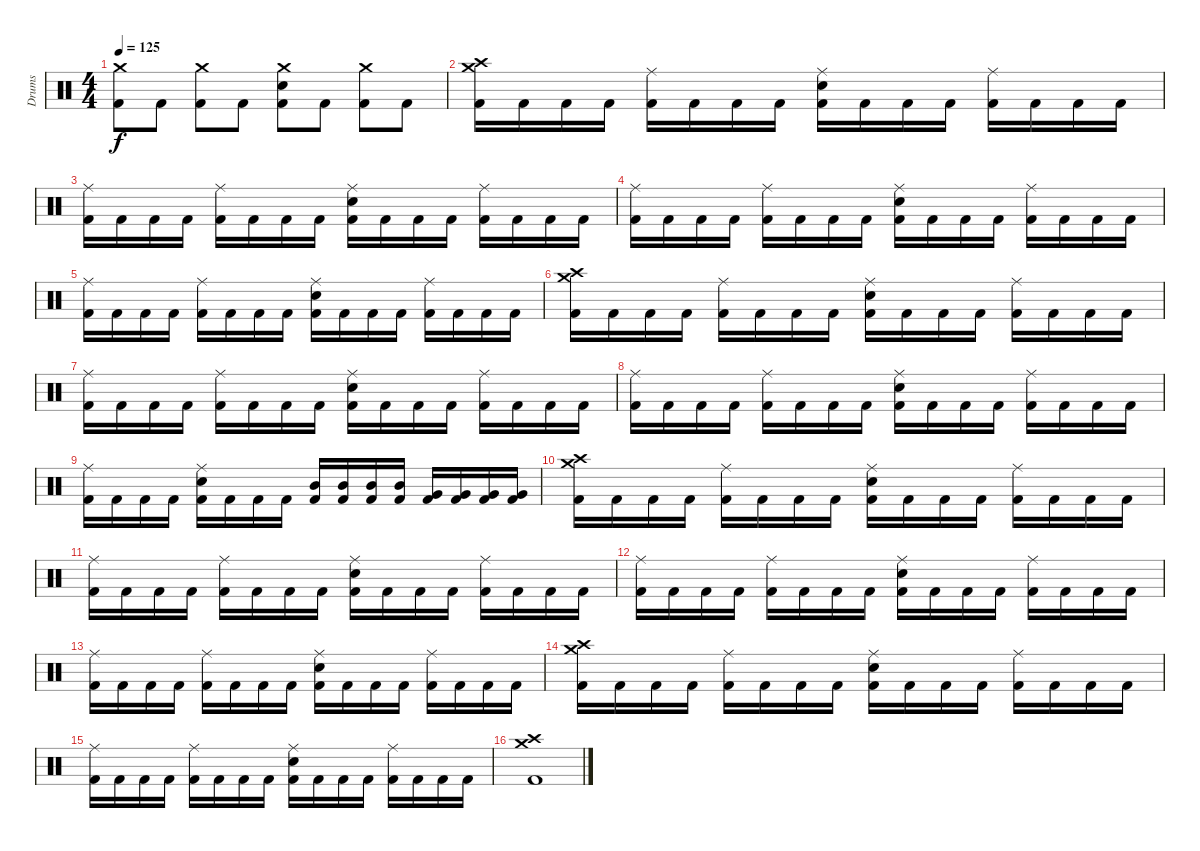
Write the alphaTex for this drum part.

\track ("Drums" "Drums") {instrument percussion}
\staff {score}
\articulation defaults
\ts (4 4)
\tempo 125
\clef neutral
\ks c
("Crash medium (hit)" "Kick (hit) 2").8{dy f} "Kick (hit) 2".8 ("Crash medium (hit)" "Kick (hit) 2").8 "Kick (hit) 2".8 ("Crash medium (hit)" "Electric Snare (hit)" "Kick (hit) 2").8 "Kick (hit) 2".8 ("Crash medium (hit)" "Kick (hit) 2").8 "Kick (hit) 2".8 |
("Crash high (hit)" "Crash medium (hit)" "Kick (hit) 2").16 "Kick (hit) 2".16 "Kick (hit) 2".16 "Kick (hit) 2".16 ("Ride (middle)" "Kick (hit) 2").16 "Kick (hit) 2".16 "Kick (hit) 2".16 "Kick (hit) 2".16 ("Ride (middle)" "Electric Snare (hit)" "Kick (hit) 2").16 "Kick (hit) 2".16 "Kick (hit) 2".16 "Kick (hit) 2".16 ("Ride (middle)" "Kick (hit) 2").16 "Kick (hit) 2".16 "Kick (hit) 2".16 "Kick (hit) 2".16 |
("Ride (middle)" "Kick (hit) 2").16 "Kick (hit) 2".16 "Kick (hit) 2".16 "Kick (hit) 2".16 ("Ride (middle)" "Kick (hit) 2").16 "Kick (hit) 2".16 "Kick (hit) 2".16 "Kick (hit) 2".16 ("Ride (middle)" "Electric Snare (hit)" "Kick (hit) 2").16 "Kick (hit) 2".16 "Kick (hit) 2".16 "Kick (hit) 2".16 ("Ride (middle)" "Kick (hit) 2").16 "Kick (hit) 2".16 "Kick (hit) 2".16 "Kick (hit) 2".16 |
("Ride (middle)" "Kick (hit) 2").16 "Kick (hit) 2".16 "Kick (hit) 2".16 "Kick (hit) 2".16 ("Ride (middle)" "Kick (hit) 2").16 "Kick (hit) 2".16 "Kick (hit) 2".16 "Kick (hit) 2".16 ("Ride (middle)" "Electric Snare (hit)" "Kick (hit) 2").16 "Kick (hit) 2".16 "Kick (hit) 2".16 "Kick (hit) 2".16 ("Ride (middle)" "Kick (hit) 2").16 "Kick (hit) 2".16 "Kick (hit) 2".16 "Kick (hit) 2".16 |
("Ride (middle)" "Kick (hit) 2").16 "Kick (hit) 2".16 "Kick (hit) 2".16 "Kick (hit) 2".16 ("Ride (middle)" "Kick (hit) 2").16 "Kick (hit) 2".16 "Kick (hit) 2".16 "Kick (hit) 2".16 ("Ride (middle)" "Electric Snare (hit)" "Kick (hit) 2").16 "Kick (hit) 2".16 "Kick (hit) 2".16 "Kick (hit) 2".16 ("Ride (middle)" "Kick (hit) 2").16 "Kick (hit) 2".16 "Kick (hit) 2".16 "Kick (hit) 2".16 |
("Crash high (hit)" "Crash medium (hit)" "Kick (hit) 2").16 "Kick (hit) 2".16 "Kick (hit) 2".16 "Kick (hit) 2".16 ("Ride (middle)" "Kick (hit) 2").16 "Kick (hit) 2".16 "Kick (hit) 2".16 "Kick (hit) 2".16 ("Ride (middle)" "Electric Snare (hit)" "Kick (hit) 2").16 "Kick (hit) 2".16 "Kick (hit) 2".16 "Kick (hit) 2".16 ("Ride (middle)" "Kick (hit) 2").16 "Kick (hit) 2".16 "Kick (hit) 2".16 "Kick (hit) 2".16 |
("Ride (middle)" "Kick (hit) 2").16 "Kick (hit) 2".16 "Kick (hit) 2".16 "Kick (hit) 2".16 ("Ride (middle)" "Kick (hit) 2").16 "Kick (hit) 2".16 "Kick (hit) 2".16 "Kick (hit) 2".16 ("Ride (middle)" "Electric Snare (hit)" "Kick (hit) 2").16 "Kick (hit) 2".16 "Kick (hit) 2".16 "Kick (hit) 2".16 ("Ride (middle)" "Kick (hit) 2").16 "Kick (hit) 2".16 "Kick (hit) 2".16 "Kick (hit) 2".16 |
("Ride (middle)" "Kick (hit) 2").16 "Kick (hit) 2".16 "Kick (hit) 2".16 "Kick (hit) 2".16 ("Ride (middle)" "Kick (hit) 2").16 "Kick (hit) 2".16 "Kick (hit) 2".16 "Kick (hit) 2".16 ("Ride (middle)" "Electric Snare (hit)" "Kick (hit) 2").16 "Kick (hit) 2".16 "Kick (hit) 2".16 "Kick (hit) 2".16 ("Ride (middle)" "Kick (hit) 2").16 "Kick (hit) 2".16 "Kick (hit) 2".16 "Kick (hit) 2".16 |
("Ride (middle)" "Kick (hit) 2").16 "Kick (hit) 2".16 "Kick (hit) 2".16 "Kick (hit) 2".16 ("Ride (middle)" "Electric Snare (hit)" "Kick (hit) 2").16 "Kick (hit) 2".16 "Kick (hit) 2".16 "Kick (hit) 2".16 ("Mid Tom (hit)" "Kick (hit) 2").16 ("Mid Tom (hit)" "Kick (hit) 2").16 ("Mid Tom (hit)" "Kick (hit) 2").16 ("Mid Tom (hit)" "Kick (hit) 2").16 ("Very Low Tom (hit)" "Kick (hit) 2").16 ("Very Low Tom (hit)" "Kick (hit) 2").16 ("Very Low Tom (hit)" "Kick (hit) 2").16 ("Very Low Tom (hit)" "Kick (hit) 2").16 |
("Crash high (hit)" "Crash medium (hit)" "Kick (hit) 2").16 "Kick (hit) 2".16 "Kick (hit) 2".16 "Kick (hit) 2".16 ("Ride (middle)" "Kick (hit) 2").16 "Kick (hit) 2".16 "Kick (hit) 2".16 "Kick (hit) 2".16 ("Ride (middle)" "Electric Snare (hit)" "Kick (hit) 2").16 "Kick (hit) 2".16 "Kick (hit) 2".16 "Kick (hit) 2".16 ("Ride (middle)" "Kick (hit) 2").16 "Kick (hit) 2".16 "Kick (hit) 2".16 "Kick (hit) 2".16 |
("Ride (middle)" "Kick (hit) 2").16 "Kick (hit) 2".16 "Kick (hit) 2".16 "Kick (hit) 2".16 ("Ride (middle)" "Kick (hit) 2").16 "Kick (hit) 2".16 "Kick (hit) 2".16 "Kick (hit) 2".16 ("Ride (middle)" "Electric Snare (hit)" "Kick (hit) 2").16 "Kick (hit) 2".16 "Kick (hit) 2".16 "Kick (hit) 2".16 ("Ride (middle)" "Kick (hit) 2").16 "Kick (hit) 2".16 "Kick (hit) 2".16 "Kick (hit) 2".16 |
("Ride (middle)" "Kick (hit) 2").16 "Kick (hit) 2".16 "Kick (hit) 2".16 "Kick (hit) 2".16 ("Ride (middle)" "Kick (hit) 2").16 "Kick (hit) 2".16 "Kick (hit) 2".16 "Kick (hit) 2".16 ("Ride (middle)" "Electric Snare (hit)" "Kick (hit) 2").16 "Kick (hit) 2".16 "Kick (hit) 2".16 "Kick (hit) 2".16 ("Ride (middle)" "Kick (hit) 2").16 "Kick (hit) 2".16 "Kick (hit) 2".16 "Kick (hit) 2".16 |
("Ride (middle)" "Kick (hit) 2").16 "Kick (hit) 2".16 "Kick (hit) 2".16 "Kick (hit) 2".16 ("Ride (middle)" "Kick (hit) 2").16 "Kick (hit) 2".16 "Kick (hit) 2".16 "Kick (hit) 2".16 ("Ride (middle)" "Electric Snare (hit)" "Kick (hit) 2").16 "Kick (hit) 2".16 "Kick (hit) 2".16 "Kick (hit) 2".16 ("Ride (middle)" "Kick (hit) 2").16 "Kick (hit) 2".16 "Kick (hit) 2".16 "Kick (hit) 2".16 |
("Crash high (hit)" "Crash medium (hit)" "Kick (hit) 2").16 "Kick (hit) 2".16 "Kick (hit) 2".16 "Kick (hit) 2".16 ("Ride (middle)" "Kick (hit) 2").16 "Kick (hit) 2".16 "Kick (hit) 2".16 "Kick (hit) 2".16 ("Ride (middle)" "Electric Snare (hit)" "Kick (hit) 2").16 "Kick (hit) 2".16 "Kick (hit) 2".16 "Kick (hit) 2".16 ("Ride (middle)" "Kick (hit) 2").16 "Kick (hit) 2".16 "Kick (hit) 2".16 "Kick (hit) 2".16 |
("Ride (middle)" "Kick (hit) 2").16 "Kick (hit) 2".16 "Kick (hit) 2".16 "Kick (hit) 2".16 ("Ride (middle)" "Kick (hit) 2").16 "Kick (hit) 2".16 "Kick (hit) 2".16 "Kick (hit) 2".16 ("Ride (middle)" "Electric Snare (hit)" "Kick (hit) 2").16 "Kick (hit) 2".16 "Kick (hit) 2".16 "Kick (hit) 2".16 ("Ride (middle)" "Kick (hit) 2").16 "Kick (hit) 2".16 "Kick (hit) 2".16 "Kick (hit) 2".16 |
("Crash high (hit)" "Crash medium (hit)" "Kick (hit) 2").1
